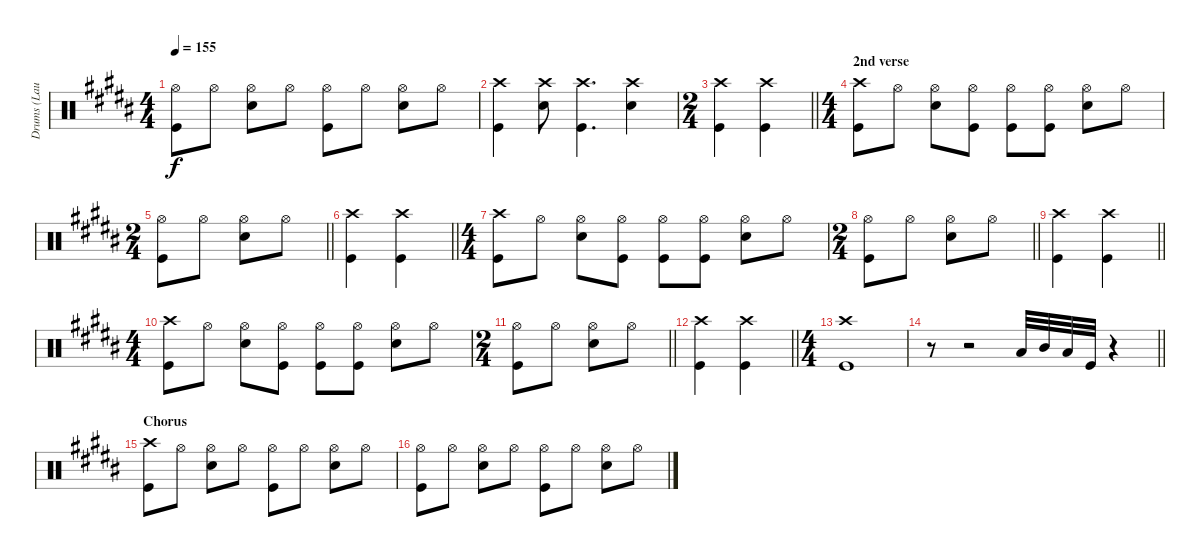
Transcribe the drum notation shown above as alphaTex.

\track ("Drums (Laust Sonne)" "Drums (Lau") {instrument percussion}
\staff {score}
\articulation defaults
\ts (4 4)
\tempo 155
\clef neutral
\ks b
("Hi-Hat (open)" "Kick (hit)").8{dy f} "Hi-Hat (open)".8 ("Hi-Hat (open)" "Snare (hit) 2").8 "Hi-Hat (open)".8 ("Hi-Hat (open)" "Kick (hit)").8 "Hi-Hat (open)".8 ("Hi-Hat (open)" "Snare (hit) 2").8 "Hi-Hat (open)".8 |
("Crash high (hit)" "Kick (hit)").4 ("Crash high (hit)" "Snare (hit) 2").8 ("Crash high (hit)" "Kick (hit)").4{d} ("Crash high (hit)" "Snare (hit) 2").4 |
\ts (2 4)
\barLineRight lightlight
("Crash high (hit)" "Kick (hit)").4 ("Crash high (hit)" "Kick (hit)").4 |
\ts (4 4)
\section ("" "2nd verse")
("Kick (hit)" "Crash high (hit)").8 "Hi-Hat (open)".8 ("Hi-Hat (open)" "Snare (hit) 2").8 ("Hi-Hat (open)" "Kick (hit)").8 ("Hi-Hat (open)" "Kick (hit)").8 ("Hi-Hat (open)" "Kick (hit)").8 ("Hi-Hat (open)" "Snare (hit) 2").8 "Hi-Hat (open)".8 |
\ts (2 4)
\barLineRight lightlight
("Kick (hit)" "Hi-Hat (open)").8 "Hi-Hat (open)".8 ("Hi-Hat (open)" "Snare (hit) 2").8 "Hi-Hat (open)".8 |
\barLineRight lightlight
("Crash high (hit)" "Kick (hit)").4 ("Crash high (hit)" "Kick (hit)").4 |
\ts (4 4)
("Kick (hit)" "Crash high (hit)").8 "Hi-Hat (open)".8 ("Hi-Hat (open)" "Snare (hit) 2").8 ("Hi-Hat (open)" "Kick (hit)").8 ("Hi-Hat (open)" "Kick (hit)").8 ("Hi-Hat (open)" "Kick (hit)").8 ("Hi-Hat (open)" "Snare (hit) 2").8 "Hi-Hat (open)".8 |
\ts (2 4)
\barLineRight lightlight
("Kick (hit)" "Hi-Hat (open)").8 "Hi-Hat (open)".8 ("Hi-Hat (open)" "Snare (hit) 2").8 "Hi-Hat (open)".8 |
\barLineRight lightlight
("Crash high (hit)" "Kick (hit)").4 ("Crash high (hit)" "Kick (hit)").4 |
\ts (4 4)
("Kick (hit)" "Crash high (hit)").8 "Hi-Hat (open)".8 ("Hi-Hat (open)" "Snare (hit) 2").8 ("Hi-Hat (open)" "Kick (hit)").8 ("Hi-Hat (open)" "Kick (hit)").8 ("Hi-Hat (open)" "Kick (hit)").8 ("Hi-Hat (open)" "Snare (hit) 2").8 "Hi-Hat (open)".8 |
\ts (2 4)
\barLineRight lightlight
("Kick (hit)" "Hi-Hat (open)").8 "Hi-Hat (open)".8 ("Hi-Hat (open)" "Snare (hit) 2").8 "Hi-Hat (open)".8 |
\barLineRight lightlight
("Crash high (hit)" "Kick (hit)").4 ("Crash high (hit)" "Kick (hit)").4 |
\ts (4 4)
("Kick (hit)" "Crash high (hit)").1 |
\barLineRight lightlight
r.8 r.2 "Low Tom (hit)".32 "Mid Tom (hit)".32 "Low Floor Tom (hit)".32 "Kick (hit)".32 r.4 |
\section ("" "Chorus")
("Crash high (hit)" "Kick (hit)").8 "Hi-Hat (open)".8 ("Hi-Hat (open)" "Snare (hit) 2").8 "Hi-Hat (open)".8 ("Hi-Hat (open)" "Kick (hit)").8 "Hi-Hat (open)".8 ("Hi-Hat (open)" "Snare (hit) 2").8 "Hi-Hat (open)".8 |
("Hi-Hat (open)" "Kick (hit)").8 "Hi-Hat (open)".8 ("Hi-Hat (open)" "Snare (hit) 2").8 "Hi-Hat (open)".8 ("Hi-Hat (open)" "Kick (hit)").8 "Hi-Hat (open)".8 ("Hi-Hat (open)" "Snare (hit) 2").8 "Hi-Hat (open)".8
